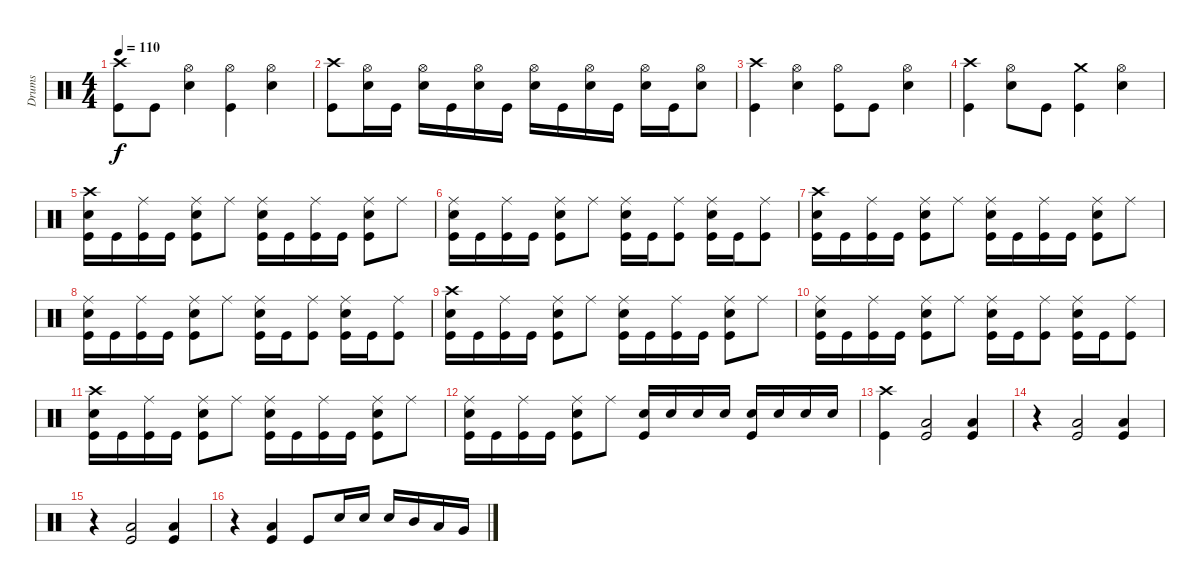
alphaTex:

\track ("Drums" "Drums") {instrument percussion}
\staff {score}
\articulation defaults
\ts (4 4)
\tempo 110
\clef neutral
\ks c
("Crash high (hit)" "Kick (hit)").8{dy f} "Kick (hit)".8 ("Hi-Hat (open)" "Snare (hit) 2").4 ("Hi-Hat (open)" "Kick (hit)").4 ("Hi-Hat (open)" "Snare (hit) 2").4 |
("Crash high (hit)" "Kick (hit)").8 ("Hi-Hat (open)" "Snare (hit) 2").16 "Kick (hit)".16 ("Hi-Hat (open)" "Snare (hit) 2").16 "Kick (hit)".16 ("Hi-Hat (open)" "Snare (hit) 2").16 "Kick (hit)".16 ("Hi-Hat (open)" "Snare (hit) 2").16 "Kick (hit)".16 ("Hi-Hat (open)" "Snare (hit) 2").16 "Kick (hit)".16 ("Hi-Hat (open)" "Snare (hit) 2").16 "Kick (hit)".16 ("Hi-Hat (open)" "Snare (hit) 2").8 |
("Crash high (hit)" "Kick (hit)").4 ("Hi-Hat (open)" "Snare (hit) 2").4 ("Hi-Hat (open)" "Kick (hit)").8 "Kick (hit)".8 ("Hi-Hat (open)" "Snare (hit) 2").4 |
("Crash high (hit)" "Kick (hit)").4 ("Hi-Hat (open)" "Snare (hit) 2").8 "Kick (hit)".8 ("Crash medium (hit)" "Kick (hit)").4 ("Hi-Hat (open)" "Snare (hit) 2").4 |
("Crash high (hit)" "Snare (hit) 2" "Kick (hit)").16 "Kick (hit)".16 ("Ride (middle)" "Kick (hit)").16 "Kick (hit)".16 ("Ride (middle)" "Snare (hit) 2" "Kick (hit)").8 "Ride (middle)".8 ("Ride (middle)" "Snare (hit) 2" "Kick (hit)").16 "Kick (hit)".16 ("Ride (middle)" "Kick (hit)").16 "Kick (hit)".16 ("Ride (middle)" "Snare (hit) 2" "Kick (hit)").8 "Ride (middle)".8 |
("Ride (middle)" "Snare (hit) 2" "Kick (hit)").16 "Kick (hit)".16 ("Ride (middle)" "Kick (hit)").16 "Kick (hit)".16 ("Ride (middle)" "Snare (hit) 2" "Kick (hit)").8 "Ride (middle)".8 ("Ride (middle)" "Snare (hit) 2" "Kick (hit)").16 "Kick (hit)".16 ("Ride (middle)" "Kick (hit)").8 ("Ride (middle)" "Snare (hit) 2" "Kick (hit)").16 "Kick (hit)".16 ("Ride (middle)" "Kick (hit)").8 |
("Crash high (hit)" "Snare (hit) 2" "Kick (hit)").16 "Kick (hit)".16 ("Ride (middle)" "Kick (hit)").16 "Kick (hit)".16 ("Ride (middle)" "Snare (hit) 2" "Kick (hit)").8 "Ride (middle)".8 ("Ride (middle)" "Snare (hit) 2" "Kick (hit)").16 "Kick (hit)".16 ("Ride (middle)" "Kick (hit)").16 "Kick (hit)".16 ("Ride (middle)" "Snare (hit) 2" "Kick (hit)").8 "Ride (middle)".8 |
("Ride (middle)" "Snare (hit) 2" "Kick (hit)").16 "Kick (hit)".16 ("Ride (middle)" "Kick (hit)").16 "Kick (hit)".16 ("Ride (middle)" "Snare (hit) 2" "Kick (hit)").8 "Ride (middle)".8 ("Ride (middle)" "Snare (hit) 2" "Kick (hit)").16 "Kick (hit)".16 ("Ride (middle)" "Kick (hit)").8 ("Ride (middle)" "Snare (hit) 2" "Kick (hit)").16 "Kick (hit)".16 ("Ride (middle)" "Kick (hit)").8 |
("Crash high (hit)" "Snare (hit) 2" "Kick (hit)").16 "Kick (hit)".16 ("Ride (middle)" "Kick (hit)").16 "Kick (hit)".16 ("Ride (middle)" "Snare (hit) 2" "Kick (hit)").8 "Ride (middle)".8 ("Ride (middle)" "Snare (hit) 2" "Kick (hit)").16 "Kick (hit)".16 ("Ride (middle)" "Kick (hit)").16 "Kick (hit)".16 ("Ride (middle)" "Snare (hit) 2" "Kick (hit)").8 "Ride (middle)".8 |
("Ride (middle)" "Snare (hit) 2" "Kick (hit)").16 "Kick (hit)".16 ("Ride (middle)" "Kick (hit)").16 "Kick (hit)".16 ("Ride (middle)" "Snare (hit) 2" "Kick (hit)").8 "Ride (middle)".8 ("Ride (middle)" "Snare (hit) 2" "Kick (hit)").16 "Kick (hit)".16 ("Ride (middle)" "Kick (hit)").8 ("Ride (middle)" "Snare (hit) 2" "Kick (hit)").16 "Kick (hit)".16 ("Ride (middle)" "Kick (hit)").8 |
("Crash high (hit)" "Snare (hit) 2" "Kick (hit)").16 "Kick (hit)".16 ("Ride (middle)" "Kick (hit)").16 "Kick (hit)".16 ("Ride (middle)" "Snare (hit) 2" "Kick (hit)").8 "Ride (middle)".8 ("Ride (middle)" "Snare (hit) 2" "Kick (hit)").16 "Kick (hit)".16 ("Ride (middle)" "Kick (hit)").16 "Kick (hit)".16 ("Ride (middle)" "Snare (hit) 2" "Kick (hit)").8 "Ride (middle)".8 |
("Ride (middle)" "Snare (hit) 2" "Kick (hit)").16 "Kick (hit)".16 ("Ride (middle)" "Kick (hit)").16 "Kick (hit)".16 ("Ride (middle)" "Snare (hit) 2" "Kick (hit)").8 "Ride (middle)".8 ("Snare (hit) 2" "Kick (hit)").16 "Snare (hit) 2".16 "Snare (hit) 2".16 "Snare (hit) 2".16 ("Snare (hit) 2" "Kick (hit)").16 "Snare (hit) 2".16 "Snare (hit) 2".16 "Snare (hit) 2".16 |
("Crash high (hit)" "Kick (hit)").4 ("Low Floor Tom (hit)" "Kick (hit)").2 ("Low Floor Tom (hit)" "Kick (hit)").4 |
r.4 ("Low Floor Tom (hit)" "Kick (hit)").2 ("Low Floor Tom (hit)" "Kick (hit)").4 |
r.4 ("Low Floor Tom (hit)" "Kick (hit)").2 ("Low Floor Tom (hit)" "Kick (hit)").4 |
r.4 ("Low Floor Tom (hit)" "Kick (hit)").4 "Kick (hit)".8 "Snare (hit) 2".16 "Snare (hit) 2".16 "Snare (hit) 2".16 "Mid Tom (hit)".16 "Low Tom (hit)".16 "Very Low Tom (hit)".16
